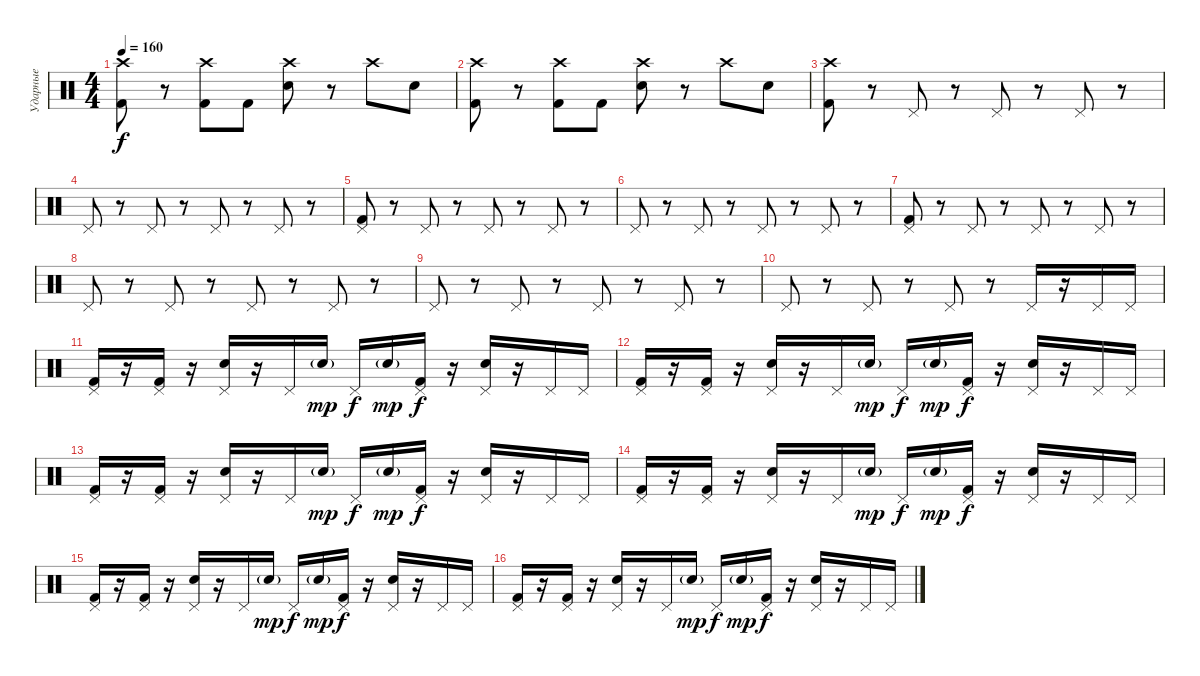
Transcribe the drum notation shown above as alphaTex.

\track ("Ударные" "Ударные") {instrument percussion}
\staff {score}
\articulation defaults
\ts (4 4)
\tempo 160
\clef neutral
\ks c
("Crash high (hit)" "Kick (hit) 2").8{dy f} r.8 ("Crash high (hit)" "Kick (hit) 2").8 "Kick (hit) 2".8 ("Crash high (hit)" "Snare (hit) 2").8 r.8 "Crash high (hit)".8 "Snare (hit) 2".8 |
("Crash high (hit)" "Kick (hit) 2").8 r.8 ("Crash high (hit)" "Kick (hit) 2").8 "Kick (hit) 2".8 ("Crash high (hit)" "Snare (hit) 2").8 r.8 "Crash high (hit)".8 "Snare (hit) 2".8 |
("Crash high (hit)" "Kick (hit) 2").8 r.8 "Pedal Hi-Hat (hit)".8 r.8 "Pedal Hi-Hat (hit)".8 r.8 "Pedal Hi-Hat (hit)".8 r.8 |
"Pedal Hi-Hat (hit)".8 r.8 "Pedal Hi-Hat (hit)".8 r.8 "Pedal Hi-Hat (hit)".8 r.8 "Pedal Hi-Hat (hit)".8 r.8 |
("Pedal Hi-Hat (hit)" "Kick (hit) 2").8 r.8 "Pedal Hi-Hat (hit)".8 r.8 "Pedal Hi-Hat (hit)".8 r.8 "Pedal Hi-Hat (hit)".8 r.8 |
"Pedal Hi-Hat (hit)".8 r.8 "Pedal Hi-Hat (hit)".8 r.8 "Pedal Hi-Hat (hit)".8 r.8 "Pedal Hi-Hat (hit)".8 r.8 |
("Pedal Hi-Hat (hit)" "Kick (hit) 2").8 r.8 "Pedal Hi-Hat (hit)".8 r.8 "Pedal Hi-Hat (hit)".8 r.8 "Pedal Hi-Hat (hit)".8 r.8 |
"Pedal Hi-Hat (hit)".8 r.8 "Pedal Hi-Hat (hit)".8 r.8 "Pedal Hi-Hat (hit)".8 r.8 "Pedal Hi-Hat (hit)".8 r.8 |
"Pedal Hi-Hat (hit)".8 r.8 "Pedal Hi-Hat (hit)".8 r.8 "Pedal Hi-Hat (hit)".8 r.8 "Pedal Hi-Hat (hit)".8 r.8 |
"Pedal Hi-Hat (hit)".8 r.8 "Pedal Hi-Hat (hit)".8 r.8 "Pedal Hi-Hat (hit)".8 r.8 "Pedal Hi-Hat (hit)".16 r.16 "Pedal Hi-Hat (hit)".16 "Pedal Hi-Hat (hit)".16 |
("Pedal Hi-Hat (hit)" "Kick (hit) 2").16 r.16 ("Pedal Hi-Hat (hit)" "Kick (hit) 2").16 r.16 ("Pedal Hi-Hat (hit)" "Snare (hit) 2").16 r.16 "Pedal Hi-Hat (hit)".16 "Snare (hit) 2"{g}.16{dy mp} "Pedal Hi-Hat (hit)".16{dy f} "Snare (hit) 2"{g}.16{dy mp} ("Pedal Hi-Hat (hit)" "Kick (hit) 2").16{dy f} r.16 ("Pedal Hi-Hat (hit)" "Snare (hit) 2").16 r.16 "Pedal Hi-Hat (hit)".16 "Pedal Hi-Hat (hit)".16 |
("Pedal Hi-Hat (hit)" "Kick (hit) 2").16 r.16 ("Pedal Hi-Hat (hit)" "Kick (hit) 2").16 r.16 ("Pedal Hi-Hat (hit)" "Snare (hit) 2").16 r.16 "Pedal Hi-Hat (hit)".16 "Snare (hit) 2"{g}.16{dy mp} "Pedal Hi-Hat (hit)".16{dy f} "Snare (hit) 2"{g}.16{dy mp} ("Pedal Hi-Hat (hit)" "Kick (hit) 2").16{dy f} r.16 ("Pedal Hi-Hat (hit)" "Snare (hit) 2").16 r.16 "Pedal Hi-Hat (hit)".16 "Pedal Hi-Hat (hit)".16 |
("Pedal Hi-Hat (hit)" "Kick (hit) 2").16 r.16 ("Pedal Hi-Hat (hit)" "Kick (hit) 2").16 r.16 ("Pedal Hi-Hat (hit)" "Snare (hit) 2").16 r.16 "Pedal Hi-Hat (hit)".16 "Snare (hit) 2"{g}.16{dy mp} "Pedal Hi-Hat (hit)".16{dy f} "Snare (hit) 2"{g}.16{dy mp} ("Pedal Hi-Hat (hit)" "Kick (hit) 2").16{dy f} r.16 ("Pedal Hi-Hat (hit)" "Snare (hit) 2").16 r.16 "Pedal Hi-Hat (hit)".16 "Pedal Hi-Hat (hit)".16 |
("Pedal Hi-Hat (hit)" "Kick (hit) 2").16 r.16 ("Pedal Hi-Hat (hit)" "Kick (hit) 2").16 r.16 ("Pedal Hi-Hat (hit)" "Snare (hit) 2").16 r.16 "Pedal Hi-Hat (hit)".16 "Snare (hit) 2"{g}.16{dy mp} "Pedal Hi-Hat (hit)".16{dy f} "Snare (hit) 2"{g}.16{dy mp} ("Pedal Hi-Hat (hit)" "Kick (hit) 2").16{dy f} r.16 ("Pedal Hi-Hat (hit)" "Snare (hit) 2").16 r.16 "Pedal Hi-Hat (hit)".16 "Pedal Hi-Hat (hit)".16 |
("Pedal Hi-Hat (hit)" "Kick (hit) 2").16 r.16 ("Pedal Hi-Hat (hit)" "Kick (hit) 2").16 r.16 ("Pedal Hi-Hat (hit)" "Snare (hit) 2").16 r.16 "Pedal Hi-Hat (hit)".16 "Snare (hit) 2"{g}.16{dy mp} "Pedal Hi-Hat (hit)".16{dy f} "Snare (hit) 2"{g}.16{dy mp} ("Pedal Hi-Hat (hit)" "Kick (hit) 2").16{dy f} r.16 ("Pedal Hi-Hat (hit)" "Snare (hit) 2").16 r.16 "Pedal Hi-Hat (hit)".16 "Pedal Hi-Hat (hit)".16 |
("Pedal Hi-Hat (hit)" "Kick (hit) 2").16 r.16 ("Pedal Hi-Hat (hit)" "Kick (hit) 2").16 r.16 ("Pedal Hi-Hat (hit)" "Snare (hit) 2").16 r.16 "Pedal Hi-Hat (hit)".16 "Snare (hit) 2"{g}.16{dy mp} "Pedal Hi-Hat (hit)".16{dy f} "Snare (hit) 2"{g}.16{dy mp} ("Pedal Hi-Hat (hit)" "Kick (hit) 2").16{dy f} r.16 ("Pedal Hi-Hat (hit)" "Snare (hit) 2").16 r.16 "Pedal Hi-Hat (hit)".16 "Pedal Hi-Hat (hit)".16
